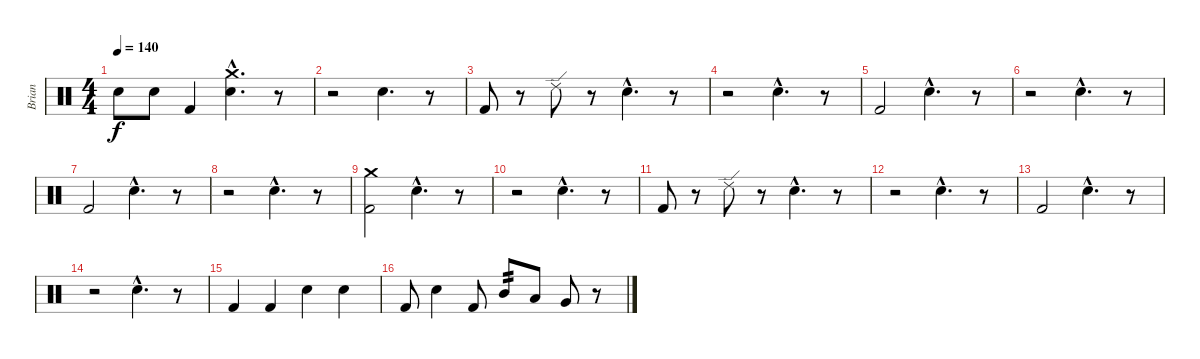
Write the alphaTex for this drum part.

\track ("Brian" "Brian") {instrument percussion}
\staff {score}
\articulation defaults
\ts (4 4)
\tempo 140
\clef neutral
\ks c "Electric Snare (hit)".8{dy f} "Electric Snare (hit)".8 "Kick (hit) 2".4
("Crash medium (hit)"{hac} "Electric Snare (hit)"{hac}).4{d} r.8 |
r.2 "Electric Snare (hit)".4{d} r.8 |
"Kick (hit) 2".8 r.8 "Ride (edge) 2".8 r.8 "Electric Snare (hit)"{hac}.4{d} r.8 |
r.2 "Electric Snare (hit)"{hac}.4{d} r.8 |
"Kick (hit) 2".2 "Electric Snare (hit)"{hac}.4{d} r.8 |
r.2 "Electric Snare (hit)"{hac}.4{d} r.8 |
"Kick (hit) 2".2 "Electric Snare (hit)"{hac}.4{d} r.8 |
r.2 "Electric Snare (hit)"{hac}.4{d} r.8 |
("Crash medium (hit)" "Kick (hit) 2").2 "Electric Snare (hit)"{hac}.4{d} r.8 |
r.2 "Electric Snare (hit)"{hac}.4{d} r.8 |
"Kick (hit) 2".8 r.8 "Ride (edge) 2".8 r.8 "Electric Snare (hit)"{hac}.4{d} r.8 |
r.2 "Electric Snare (hit)"{hac}.4{d} r.8 |
"Kick (hit) 2".2 "Electric Snare (hit)"{hac}.4{d} r.8 |
r.2 "Electric Snare (hit)"{hac}.4{d} r.8 |
"Kick (hit) 2".4 "Kick (hit) 2".4 "Electric Snare (hit)".4 "Electric Snare (hit)".4 |
"Kick (hit) 2".8 "Electric Snare (hit)".4 "Kick (hit) 2".8 "Mid Tom (hit)".8{tp 2} "Low Tom (hit)".8 "Very Low Tom (hit)".8 r.8
